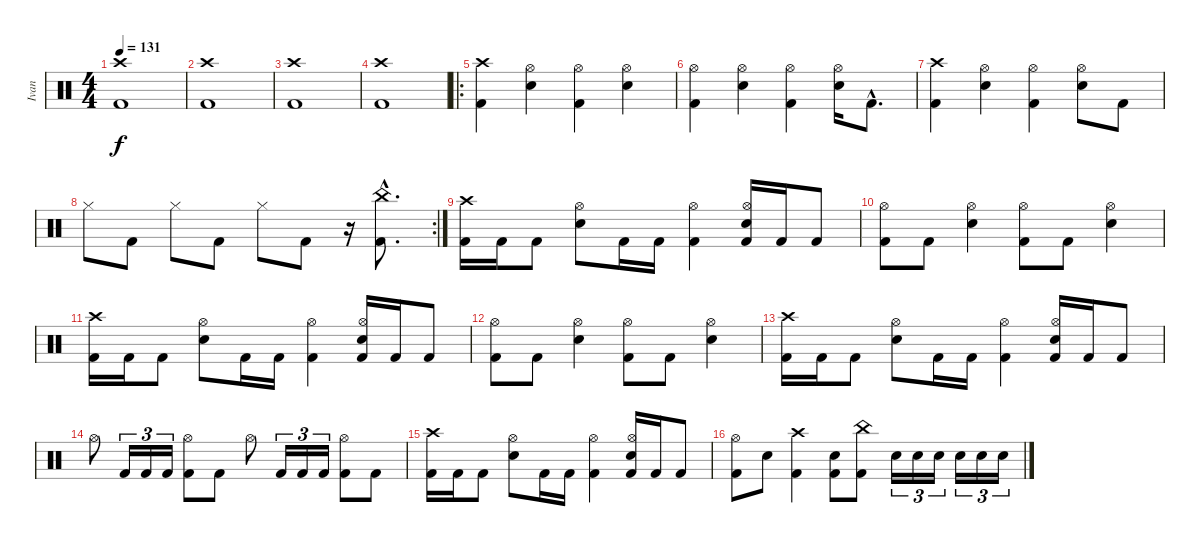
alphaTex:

\track ("Ivan" "Ivan") {instrument percussion}
\staff {score}
\articulation defaults
\ts (4 4)
\tempo 131
\clef neutral
\ks c
("Crash high (hit)" "Kick (hit) 2").1{dy f} |
("Crash high (hit)" "Kick (hit) 2").1 |
("Crash high (hit)" "Kick (hit) 2").1 |
("Crash high (hit)" "Kick (hit) 2").1 |
\ro
("Crash high (hit)" "Kick (hit) 2").4 ("Hi-Hat (open)" "Electric Snare (hit)").4 ("Hi-Hat (open)" "Kick (hit) 2").4 ("Hi-Hat (open)" "Electric Snare (hit)").4 |
("Hi-Hat (open)" "Kick (hit) 2").4 ("Hi-Hat (open)" "Electric Snare (hit)").4 ("Hi-Hat (open)" "Kick (hit) 2").4 ("Hi-Hat (open)" "Electric Snare (hit)").16 "Kick (hit) 2"{hac}.8{d} |
("Crash high (hit)" "Kick (hit) 2").4 ("Hi-Hat (open)" "Electric Snare (hit)").4 ("Hi-Hat (open)" "Kick (hit) 2").4 ("Hi-Hat (open)" "Electric Snare (hit)").8 "Kick (hit) 2".8 |
\rc 2 "Hi-Hat (closed)".8 "Kick (hit) 2".8 "Hi-Hat (closed)".8 "Kick (hit) 2".8 "Hi-Hat (closed)".8 "Kick (hit) 2".8
r.16 ("China (hit)"{hac} "Kick (hit) 2"{hac}).8{d} |
("Crash high (hit)" "Kick (hit) 2").16 "Kick (hit) 2".16 "Kick (hit) 2".8 ("Hi-Hat (open)" "Electric Snare (hit)").8 "Kick (hit) 2".16 "Kick (hit) 2".16 ("Hi-Hat (open)" "Kick (hit) 2").4 ("Hi-Hat (open)" "Electric Snare (hit)" "Kick (hit) 2").16 "Kick (hit) 2".16 "Kick (hit) 2".8 |
("Hi-Hat (open)" "Kick (hit) 2").8 "Kick (hit) 2".8 ("Hi-Hat (open)" "Electric Snare (hit)").4 ("Hi-Hat (open)" "Kick (hit) 2").8 "Kick (hit) 2".8 ("Hi-Hat (open)" "Electric Snare (hit)").4 |
("Crash high (hit)" "Kick (hit) 2").16 "Kick (hit) 2".16 "Kick (hit) 2".8 ("Hi-Hat (open)" "Electric Snare (hit)").8 "Kick (hit) 2".16 "Kick (hit) 2".16 ("Hi-Hat (open)" "Kick (hit) 2").4 ("Hi-Hat (open)" "Electric Snare (hit)" "Kick (hit) 2").16 "Kick (hit) 2".16 "Kick (hit) 2".8 |
("Hi-Hat (open)" "Kick (hit) 2").8 "Kick (hit) 2".8 ("Hi-Hat (open)" "Electric Snare (hit)").4 ("Hi-Hat (open)" "Kick (hit) 2").8 "Kick (hit) 2".8 ("Hi-Hat (open)" "Electric Snare (hit)").4 |
("Crash high (hit)" "Kick (hit) 2").16 "Kick (hit) 2".16 "Kick (hit) 2".8 ("Hi-Hat (open)" "Electric Snare (hit)").8 "Kick (hit) 2".16 "Kick (hit) 2".16 ("Hi-Hat (open)" "Kick (hit) 2").4 ("Hi-Hat (open)" "Electric Snare (hit)" "Kick (hit) 2").16 "Kick (hit) 2".16 "Kick (hit) 2".8 |
"Hi-Hat (open)".8 "Kick (hit) 2".16{tu (3 2)} "Kick (hit) 2".16{tu (3 2)} "Kick (hit) 2".16{tu (3 2)} ("Hi-Hat (open)" "Kick (hit) 2").8 "Kick (hit) 2".8 "Hi-Hat (open)".8 "Kick (hit) 2".16{tu (3 2)} "Kick (hit) 2".16{tu (3 2)} "Kick (hit) 2".16{tu (3 2)} ("Hi-Hat (open)" "Kick (hit) 2").8 "Kick (hit) 2".8 |
("Crash high (hit)" "Kick (hit) 2").16 "Kick (hit) 2".16 "Kick (hit) 2".8 ("Hi-Hat (open)" "Electric Snare (hit)").8 "Kick (hit) 2".16 "Kick (hit) 2".16 ("Hi-Hat (open)" "Kick (hit) 2").4 ("Hi-Hat (open)" "Electric Snare (hit)" "Kick (hit) 2").16 "Kick (hit) 2".16 "Kick (hit) 2".8 |
("Hi-Hat (open)" "Kick (hit) 2").8 "Electric Snare (hit)".8 ("Crash high (hit)" "Kick (hit) 2").4 ("Electric Snare (hit)" "Kick (hit) 2").8 ("China (hit)" "Kick (hit) 2").8 "Electric Snare (hit)".16{tu (3 2)} "Electric Snare (hit)".16{tu (3 2)} "Electric Snare (hit)".16{tu (3 2)} "Electric Snare (hit)".16{tu (3 2)} "Electric Snare (hit)".16{tu (3 2)} "Electric Snare (hit)".16{tu (3 2)}
